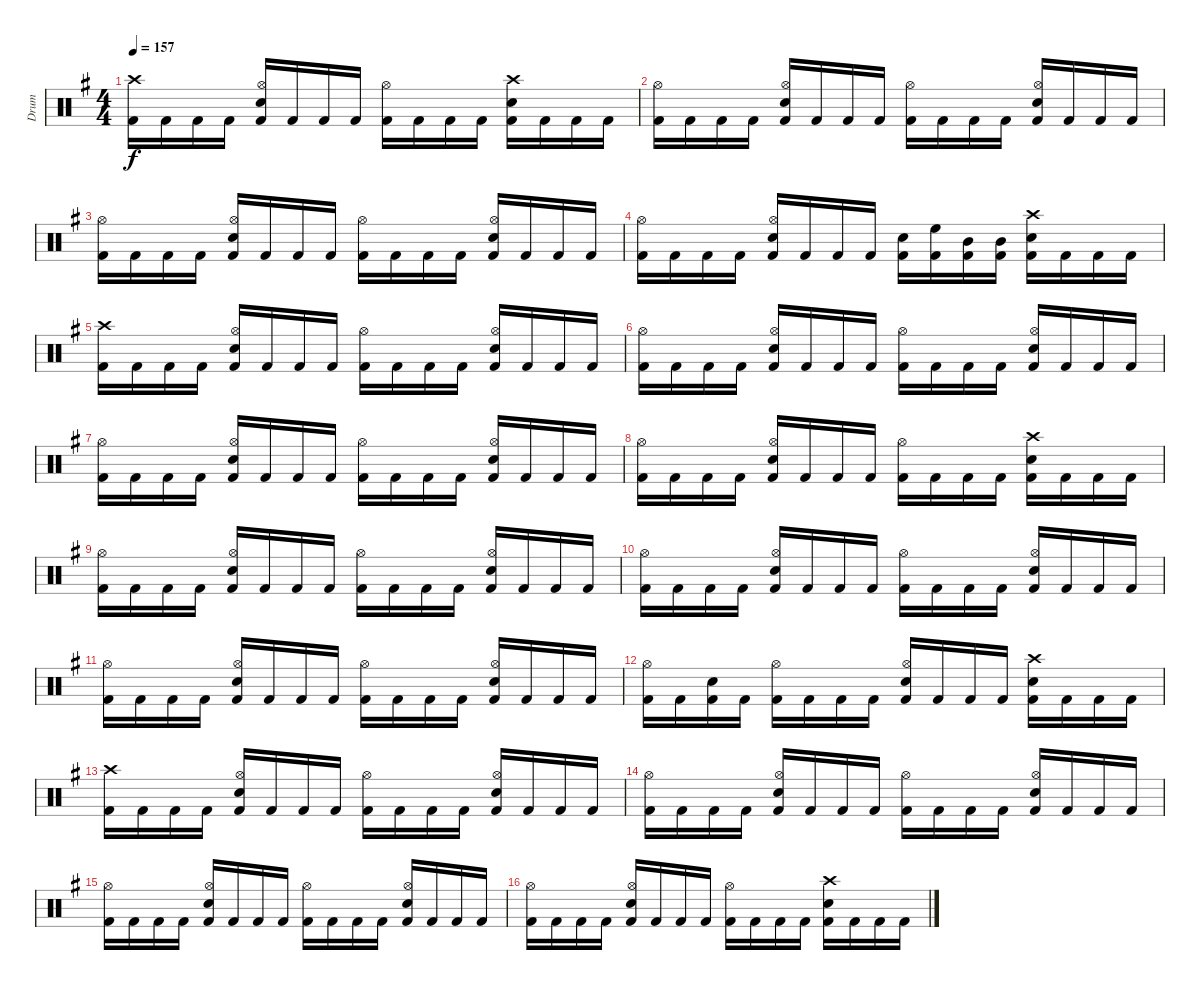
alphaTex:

\track ("Drum" "Drum") {instrument percussion}
\staff {score}
\articulation defaults
\ts (4 4)
\tempo 157
\clef neutral
\ks eminor
("Crash high (hit)" "Kick (hit) 2").16{dy f} "Kick (hit) 2".16 "Kick (hit) 2".16 "Kick (hit) 2".16 ("Hi-Hat (open)" "Snare (hit) 2" "Kick (hit) 2").16 "Kick (hit) 2".16 "Kick (hit) 2".16 "Kick (hit) 2".16 ("Hi-Hat (open)" "Kick (hit) 2").16 "Kick (hit) 2".16 "Kick (hit) 2".16 "Kick (hit) 2".16 ("Crash high (hit)" "Snare (hit) 2" "Kick (hit) 2").16 "Kick (hit) 2".16 "Kick (hit) 2".16 "Kick (hit) 2".16 |
("Hi-Hat (open)" "Kick (hit) 2").16 "Kick (hit) 2".16 "Kick (hit) 2".16 "Kick (hit) 2".16 ("Hi-Hat (open)" "Snare (hit) 2" "Kick (hit) 2").16 "Kick (hit) 2".16 "Kick (hit) 2".16 "Kick (hit) 2".16 ("Hi-Hat (open)" "Kick (hit) 2").16 "Kick (hit) 2".16 "Kick (hit) 2".16 "Kick (hit) 2".16 ("Hi-Hat (open)" "Snare (hit) 2" "Kick (hit) 2").16 "Kick (hit) 2".16 "Kick (hit) 2".16 "Kick (hit) 2".16 |
("Hi-Hat (open)" "Kick (hit) 2").16 "Kick (hit) 2".16 "Kick (hit) 2".16 "Kick (hit) 2".16 ("Hi-Hat (open)" "Snare (hit) 2" "Kick (hit) 2").16 "Kick (hit) 2".16 "Kick (hit) 2".16 "Kick (hit) 2".16 ("Hi-Hat (open)" "Kick (hit) 2").16 "Kick (hit) 2".16 "Kick (hit) 2".16 "Kick (hit) 2".16 ("Hi-Hat (open)" "Snare (hit) 2" "Kick (hit) 2").16 "Kick (hit) 2".16 "Kick (hit) 2".16 "Kick (hit) 2".16 |
("Hi-Hat (open)" "Kick (hit) 2").16 "Kick (hit) 2".16 "Kick (hit) 2".16 "Kick (hit) 2".16 ("Hi-Hat (open)" "Snare (hit) 2" "Kick (hit) 2").16 "Kick (hit) 2".16 "Kick (hit) 2".16 "Kick (hit) 2".16 ("Snare (hit) 2" "Kick (hit) 2").16 ("High Floor Tom (hit)" "Kick (hit) 2").16 ("Mid Tom (hit)" "Kick (hit) 2").16 ("Mid Tom (hit)" "Kick (hit) 2").16 ("Crash high (hit)" "Snare (hit) 2" "Kick (hit) 2").16 "Kick (hit) 2".16 "Kick (hit) 2".16 "Kick (hit) 2".16 |
("Crash high (hit)" "Kick (hit) 2").16 "Kick (hit) 2".16 "Kick (hit) 2".16 "Kick (hit) 2".16 ("Hi-Hat (open)" "Snare (hit) 2" "Kick (hit) 2").16 "Kick (hit) 2".16 "Kick (hit) 2".16 "Kick (hit) 2".16 ("Hi-Hat (open)" "Kick (hit) 2").16 "Kick (hit) 2".16 "Kick (hit) 2".16 "Kick (hit) 2".16 ("Hi-Hat (open)" "Snare (hit) 2" "Kick (hit) 2").16 "Kick (hit) 2".16 "Kick (hit) 2".16 "Kick (hit) 2".16 |
("Hi-Hat (open)" "Kick (hit) 2").16 "Kick (hit) 2".16 "Kick (hit) 2".16 "Kick (hit) 2".16 ("Hi-Hat (open)" "Snare (hit) 2" "Kick (hit) 2").16 "Kick (hit) 2".16 "Kick (hit) 2".16 "Kick (hit) 2".16 ("Hi-Hat (open)" "Kick (hit) 2").16 "Kick (hit) 2".16 "Kick (hit) 2".16 "Kick (hit) 2".16 ("Hi-Hat (open)" "Snare (hit) 2" "Kick (hit) 2").16 "Kick (hit) 2".16 "Kick (hit) 2".16 "Kick (hit) 2".16 |
("Hi-Hat (open)" "Kick (hit) 2").16 "Kick (hit) 2".16 "Kick (hit) 2".16 "Kick (hit) 2".16 ("Hi-Hat (open)" "Snare (hit) 2" "Kick (hit) 2").16 "Kick (hit) 2".16 "Kick (hit) 2".16 "Kick (hit) 2".16 ("Hi-Hat (open)" "Kick (hit) 2").16 "Kick (hit) 2".16 "Kick (hit) 2".16 "Kick (hit) 2".16 ("Hi-Hat (open)" "Snare (hit) 2" "Kick (hit) 2").16 "Kick (hit) 2".16 "Kick (hit) 2".16 "Kick (hit) 2".16 |
("Hi-Hat (open)" "Kick (hit) 2").16 "Kick (hit) 2".16 "Kick (hit) 2".16 "Kick (hit) 2".16 ("Hi-Hat (open)" "Snare (hit) 2" "Kick (hit) 2").16 "Kick (hit) 2".16 "Kick (hit) 2".16 "Kick (hit) 2".16 ("Hi-Hat (open)" "Kick (hit) 2").16 "Kick (hit) 2".16 "Kick (hit) 2".16 "Kick (hit) 2".16 ("Crash high (hit)" "Snare (hit) 2" "Kick (hit) 2").16 "Kick (hit) 2".16 "Kick (hit) 2".16 "Kick (hit) 2".16 |
("Hi-Hat (open)" "Kick (hit) 2").16 "Kick (hit) 2".16 "Kick (hit) 2".16 "Kick (hit) 2".16 ("Hi-Hat (open)" "Snare (hit) 2" "Kick (hit) 2").16 "Kick (hit) 2".16 "Kick (hit) 2".16 "Kick (hit) 2".16 ("Hi-Hat (open)" "Kick (hit) 2").16 "Kick (hit) 2".16 "Kick (hit) 2".16 "Kick (hit) 2".16 ("Hi-Hat (open)" "Snare (hit) 2" "Kick (hit) 2").16 "Kick (hit) 2".16 "Kick (hit) 2".16 "Kick (hit) 2".16 |
("Hi-Hat (open)" "Kick (hit) 2").16 "Kick (hit) 2".16 "Kick (hit) 2".16 "Kick (hit) 2".16 ("Hi-Hat (open)" "Snare (hit) 2" "Kick (hit) 2").16 "Kick (hit) 2".16 "Kick (hit) 2".16 "Kick (hit) 2".16 ("Hi-Hat (open)" "Kick (hit) 2").16 "Kick (hit) 2".16 "Kick (hit) 2".16 "Kick (hit) 2".16 ("Hi-Hat (open)" "Snare (hit) 2" "Kick (hit) 2").16 "Kick (hit) 2".16 "Kick (hit) 2".16 "Kick (hit) 2".16 |
("Hi-Hat (open)" "Kick (hit) 2").16 "Kick (hit) 2".16 "Kick (hit) 2".16 "Kick (hit) 2".16 ("Hi-Hat (open)" "Snare (hit) 2" "Kick (hit) 2").16 "Kick (hit) 2".16 "Kick (hit) 2".16 "Kick (hit) 2".16 ("Hi-Hat (open)" "Kick (hit) 2").16 "Kick (hit) 2".16 "Kick (hit) 2".16 "Kick (hit) 2".16 ("Hi-Hat (open)" "Snare (hit) 2" "Kick (hit) 2").16 "Kick (hit) 2".16 "Kick (hit) 2".16 "Kick (hit) 2".16 |
("Hi-Hat (open)" "Kick (hit) 2").16 "Kick (hit) 2".16 ("Snare (hit) 2" "Kick (hit) 2").16 "Kick (hit) 2".16 ("Hi-Hat (open)" "Kick (hit) 2").16 "Kick (hit) 2".16 "Kick (hit) 2".16 "Kick (hit) 2".16 ("Hi-Hat (open)" "Snare (hit) 2" "Kick (hit) 2").16 "Kick (hit) 2".16 "Kick (hit) 2".16 "Kick (hit) 2".16 ("Crash high (hit)" "Snare (hit) 2" "Kick (hit) 2").16 "Kick (hit) 2".16 "Kick (hit) 2".16 "Kick (hit) 2".16 |
("Crash high (hit)" "Kick (hit) 2").16 "Kick (hit) 2".16 "Kick (hit) 2".16 "Kick (hit) 2".16 ("Hi-Hat (open)" "Snare (hit) 2" "Kick (hit) 2").16 "Kick (hit) 2".16 "Kick (hit) 2".16 "Kick (hit) 2".16 ("Hi-Hat (open)" "Kick (hit) 2").16 "Kick (hit) 2".16 "Kick (hit) 2".16 "Kick (hit) 2".16 ("Hi-Hat (open)" "Snare (hit) 2" "Kick (hit) 2").16 "Kick (hit) 2".16 "Kick (hit) 2".16 "Kick (hit) 2".16 |
("Hi-Hat (open)" "Kick (hit) 2").16 "Kick (hit) 2".16 "Kick (hit) 2".16 "Kick (hit) 2".16 ("Hi-Hat (open)" "Snare (hit) 2" "Kick (hit) 2").16 "Kick (hit) 2".16 "Kick (hit) 2".16 "Kick (hit) 2".16 ("Hi-Hat (open)" "Kick (hit) 2").16 "Kick (hit) 2".16 "Kick (hit) 2".16 "Kick (hit) 2".16 ("Hi-Hat (open)" "Snare (hit) 2" "Kick (hit) 2").16 "Kick (hit) 2".16 "Kick (hit) 2".16 "Kick (hit) 2".16 |
("Hi-Hat (open)" "Kick (hit) 2").16 "Kick (hit) 2".16 "Kick (hit) 2".16 "Kick (hit) 2".16 ("Hi-Hat (open)" "Snare (hit) 2" "Kick (hit) 2").16 "Kick (hit) 2".16 "Kick (hit) 2".16 "Kick (hit) 2".16 ("Hi-Hat (open)" "Kick (hit) 2").16 "Kick (hit) 2".16 "Kick (hit) 2".16 "Kick (hit) 2".16 ("Hi-Hat (open)" "Snare (hit) 2" "Kick (hit) 2").16 "Kick (hit) 2".16 "Kick (hit) 2".16 "Kick (hit) 2".16 |
("Hi-Hat (open)" "Kick (hit) 2").16 "Kick (hit) 2".16 "Kick (hit) 2".16 "Kick (hit) 2".16 ("Hi-Hat (open)" "Snare (hit) 2" "Kick (hit) 2").16 "Kick (hit) 2".16 "Kick (hit) 2".16 "Kick (hit) 2".16 ("Hi-Hat (open)" "Kick (hit) 2").16 "Kick (hit) 2".16 "Kick (hit) 2".16 "Kick (hit) 2".16 ("Crash high (hit)" "Snare (hit) 2" "Kick (hit) 2").16 "Kick (hit) 2".16 "Kick (hit) 2".16 "Kick (hit) 2".16
